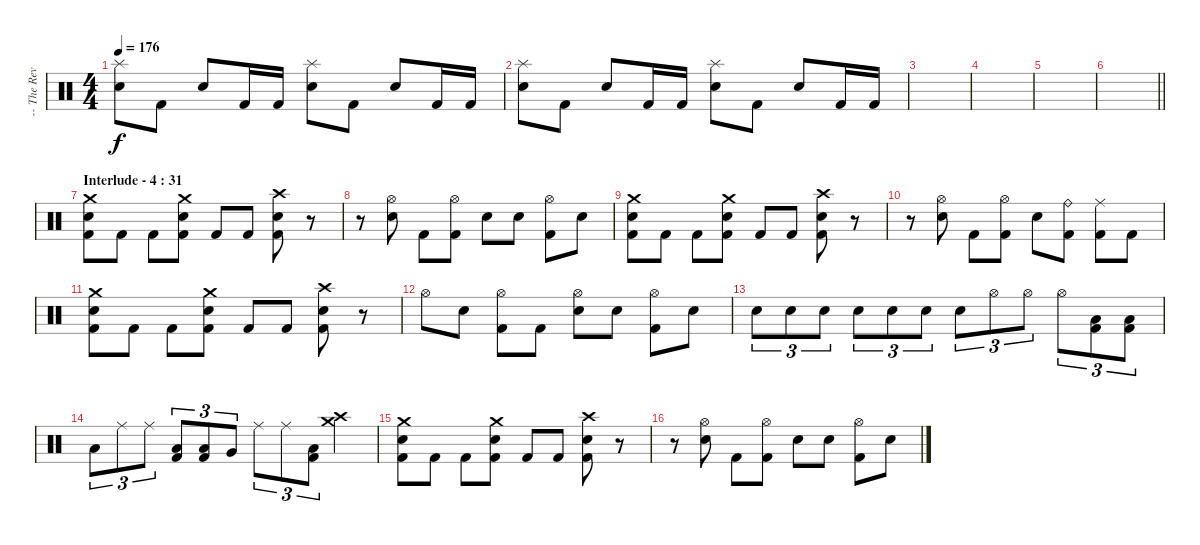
\track ("-- The Reverend - Drums" "-- The Rev") {instrument percussion}
\staff {score}
\articulation defaults
\ts (4 4)
\tempo 176
\clef neutral
\ks c
("Splash (hit)" "Electric Snare (hit)").8{dy f} "Kick (hit) 2".8 "Electric Snare (hit)".8 "Kick (hit) 2".16 "Kick (hit) 2".16 ("Splash (hit)" "Electric Snare (hit)").8 "Kick (hit) 2".8 "Electric Snare (hit)".8 "Kick (hit) 2".16 "Kick (hit) 2".16 |
("Splash (hit)" "Electric Snare (hit)").8 "Kick (hit) 2".8 "Electric Snare (hit)".8 "Kick (hit) 2".16 "Kick (hit) 2".16 ("Splash (hit)" "Electric Snare (hit)").8 "Kick (hit) 2".8 "Electric Snare (hit)".8 "Kick (hit) 2".16 "Kick (hit) 2".16 |
|
|
|
\barLineRight lightlight
|
\section ("" "Interlude - 4 : 31")
("Crash medium (hit)" "Electric Snare (hit)" "Kick (hit) 2").8 "Kick (hit) 2".8 "Kick (hit) 2".8 ("Crash medium (hit)" "Electric Snare (hit)" "Kick (hit) 2").8 "Kick (hit) 2".8 "Kick (hit) 2".8 ("Crash high (hit)" "Electric Snare (hit)" "Kick (hit) 2").8 r.8 |
r.8 ("Hi-Hat (open)" "Electric Snare (hit)").8 "Kick (hit) 2".8 ("Hi-Hat (open)" "Kick (hit) 2").8 "Electric Snare (hit)".8 "Electric Snare (hit)".8 ("Hi-Hat (open)" "Kick (hit) 2").8 "Electric Snare (hit)".8 |
("Crash medium (hit)" "Electric Snare (hit)" "Kick (hit) 2").8 "Kick (hit) 2".8 "Kick (hit) 2".8 ("Crash medium (hit)" "Electric Snare (hit)" "Kick (hit) 2").8 "Kick (hit) 2".8 "Kick (hit) 2".8 ("Crash high (hit)" "Electric Snare (hit)" "Kick (hit) 2").8 r.8 |
r.8 ("Hi-Hat (open)" "Electric Snare (hit)").8 "Kick (hit) 2".8 ("Hi-Hat (open)" "Kick (hit) 2").8 "Electric Snare (hit)".8 ("Ride (bell)" "Kick (hit) 2").8 ("Ride (middle)" "Kick (hit) 2").8 "Kick (hit) 2".8 |
("Crash medium (hit)" "Electric Snare (hit)" "Kick (hit) 2").8 "Kick (hit) 2".8 "Kick (hit) 2".8 ("Crash medium (hit)" "Electric Snare (hit)" "Kick (hit) 2").8 "Kick (hit) 2".8 "Kick (hit) 2".8 ("Crash high (hit)" "Electric Snare (hit)" "Kick (hit) 2").8 r.8 |
"Hi-Hat (open)".8 "Electric Snare (hit)".8 ("Hi-Hat (open)" "Kick (hit) 2").8 "Kick (hit) 2".8 ("Hi-Hat (open)" "Electric Snare (hit)").8 "Electric Snare (hit)".8 ("Hi-Hat (open)" "Kick (hit) 2").8 "Electric Snare (hit)".8 |
"Electric Snare (hit)".8{tu (3 2)} "Electric Snare (hit)".8{tu (3 2)} "Electric Snare (hit)".8{tu (3 2)} "Electric Snare (hit)".8{tu (3 2)} "Electric Snare (hit)".8{tu (3 2)} "Electric Snare (hit)".8{tu (3 2)} "Electric Snare (hit)".8{tu (3 2)} "Hi-Hat (open)".8{tu (3 2)} "Hi-Hat (open)".8{tu (3 2)} "Hi-Hat (open)".8{tu (3 2)} ("Low Floor Tom (hit)" "Kick (hit) 2").8{tu (3 2)} ("Low Floor Tom (hit)" "Kick (hit) 2").8{tu (3 2)} |
"Low Tom (hit)".8{tu (3 2)} "Ride (middle)".8{tu (3 2)} "Ride (middle)".8{tu (3 2)} ("Low Floor Tom (hit)" "Kick (hit) 2").8{tu (3 2)} ("Low Floor Tom (hit)" "Kick (hit) 2").8{tu (3 2)} "Very Low Tom (hit)".8{tu (3 2)} "Ride (middle)".8{tu (3 2)} "Ride (middle)".8{tu (3 2)} ("Low Floor Tom (hit)" "Kick (hit) 2").8{tu (3 2)} ("Crash high (hit)" "Crash medium (hit)").4 |
("Crash medium (hit)" "Electric Snare (hit)" "Kick (hit) 2").8 "Kick (hit) 2".8 "Kick (hit) 2".8 ("Crash medium (hit)" "Electric Snare (hit)" "Kick (hit) 2").8 "Kick (hit) 2".8 "Kick (hit) 2".8 ("Crash high (hit)" "Electric Snare (hit)" "Kick (hit) 2").8 r.8 |
r.8 ("Hi-Hat (open)" "Electric Snare (hit)").8 "Kick (hit) 2".8 ("Hi-Hat (open)" "Kick (hit) 2").8 "Electric Snare (hit)".8 "Electric Snare (hit)".8 ("Hi-Hat (open)" "Kick (hit) 2").8 "Electric Snare (hit)".8
